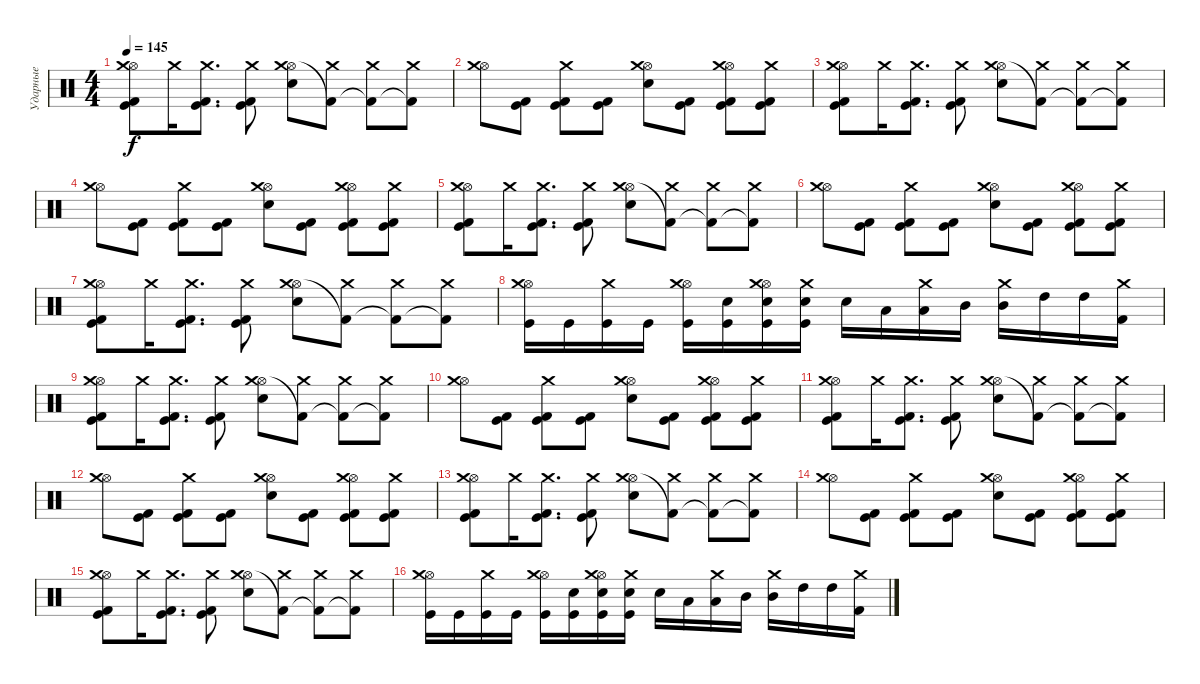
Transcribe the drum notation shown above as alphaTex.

\track ("Ударные" "Ударные") {instrument percussion}
\staff {score}
\articulation defaults
\ts (4 4)
\tempo 145
\clef neutral
\ks c
("Hi-Hat (open)" "Crash medium (hit)" "Kick (hit) 2" "Kick (hit)").8{dy f} "Crash medium (hit)".16 ("Crash medium (hit)" "Kick (hit) 2" "Kick (hit)").8{d} ("Crash medium (hit)" "Kick (hit) 2" "Kick (hit)").8 ("Hi-Hat (open)" "Crash medium (hit)" "Electric Snare (hit)").8 ("Crash medium (hit)" "Kick (hit) 2"{t}).8 ("Crash medium (hit)" "Kick (hit) 2"{t}).8 ("Crash medium (hit)" "Kick (hit) 2"{t}).8 |
("Hi-Hat (open)" "Crash medium (hit)").8 ("Kick (hit) 2" "Kick (hit)").8 ("Crash medium (hit)" "Kick (hit) 2" "Kick (hit)").8 ("Kick (hit) 2" "Kick (hit)").8 ("Hi-Hat (open)" "Crash medium (hit)" "Electric Snare (hit)").8 ("Kick (hit) 2" "Kick (hit)").8 ("Hi-Hat (open)" "Crash medium (hit)" "Kick (hit) 2" "Kick (hit)").8 ("Crash medium (hit)" "Kick (hit) 2" "Kick (hit)").8 |
("Hi-Hat (open)" "Crash medium (hit)" "Kick (hit) 2" "Kick (hit)").8 "Crash medium (hit)".16 ("Crash medium (hit)" "Kick (hit) 2" "Kick (hit)").8{d} ("Crash medium (hit)" "Kick (hit) 2" "Kick (hit)").8 ("Hi-Hat (open)" "Crash medium (hit)" "Electric Snare (hit)").8 ("Crash medium (hit)" "Kick (hit) 2"{t}).8 ("Crash medium (hit)" "Kick (hit) 2"{t}).8 ("Crash medium (hit)" "Kick (hit) 2"{t}).8 |
("Hi-Hat (open)" "Crash medium (hit)").8 ("Kick (hit) 2" "Kick (hit)").8 ("Crash medium (hit)" "Kick (hit) 2" "Kick (hit)").8 ("Kick (hit) 2" "Kick (hit)").8 ("Hi-Hat (open)" "Crash medium (hit)" "Electric Snare (hit)").8 ("Kick (hit) 2" "Kick (hit)").8 ("Hi-Hat (open)" "Crash medium (hit)" "Kick (hit) 2" "Kick (hit)").8 ("Crash medium (hit)" "Kick (hit) 2" "Kick (hit)").8 |
("Hi-Hat (open)" "Crash medium (hit)" "Kick (hit) 2" "Kick (hit)").8 "Crash medium (hit)".16 ("Crash medium (hit)" "Kick (hit) 2" "Kick (hit)").8{d} ("Crash medium (hit)" "Kick (hit) 2" "Kick (hit)").8 ("Hi-Hat (open)" "Crash medium (hit)" "Electric Snare (hit)").8 ("Crash medium (hit)" "Kick (hit) 2"{t}).8 ("Crash medium (hit)" "Kick (hit) 2"{t}).8 ("Crash medium (hit)" "Kick (hit) 2"{t}).8 |
("Hi-Hat (open)" "Crash medium (hit)").8 ("Kick (hit) 2" "Kick (hit)").8 ("Crash medium (hit)" "Kick (hit) 2" "Kick (hit)").8 ("Kick (hit) 2" "Kick (hit)").8 ("Hi-Hat (open)" "Crash medium (hit)" "Electric Snare (hit)").8 ("Kick (hit) 2" "Kick (hit)").8 ("Hi-Hat (open)" "Crash medium (hit)" "Kick (hit) 2" "Kick (hit)").8 ("Crash medium (hit)" "Kick (hit) 2" "Kick (hit)").8 |
("Hi-Hat (open)" "Crash medium (hit)" "Kick (hit) 2" "Kick (hit)").8 "Crash medium (hit)".16 ("Crash medium (hit)" "Kick (hit) 2" "Kick (hit)").8{d} ("Crash medium (hit)" "Kick (hit) 2" "Kick (hit)").8 ("Hi-Hat (open)" "Crash medium (hit)" "Electric Snare (hit)").8 ("Crash medium (hit)" "Kick (hit) 2"{t}).8 ("Crash medium (hit)" "Kick (hit) 2"{t}).8 ("Crash medium (hit)" "Kick (hit) 2"{t}).8 |
("Hi-Hat (open)" "Crash medium (hit)" "Kick (hit)").16 "Kick (hit)".16 ("Crash medium (hit)" "Kick (hit)").16 "Kick (hit)".16 ("Hi-Hat (open)" "Crash medium (hit)" "Kick (hit)").16 ("Electric Snare (hit)" "Kick (hit)").16 ("Hi-Hat (open)" "Crash medium (hit)" "Electric Snare (hit)" "Kick (hit)").16 ("Crash medium (hit)" "Electric Snare (hit)" "Kick (hit)").16 "Electric Snare (hit)".16 "Low Tom (hit)".16 ("Crash medium (hit)" "Low Tom (hit)").16 "Mid Tom (hit)".16 ("Crash medium (hit)" "Mid Tom (hit)").16 "High Tom (hit)".16 "High Tom (hit)".16 ("Crash medium (hit)" "Kick (hit) 2").16 |
("Hi-Hat (open)" "Crash medium (hit)" "Kick (hit) 2" "Kick (hit)").8 "Crash medium (hit)".16 ("Crash medium (hit)" "Kick (hit) 2" "Kick (hit)").8{d} ("Crash medium (hit)" "Kick (hit) 2" "Kick (hit)").8 ("Hi-Hat (open)" "Crash medium (hit)" "Electric Snare (hit)").8 ("Crash medium (hit)" "Kick (hit) 2"{t}).8 ("Crash medium (hit)" "Kick (hit) 2"{t}).8 ("Crash medium (hit)" "Kick (hit) 2"{t}).8 |
("Hi-Hat (open)" "Crash medium (hit)").8 ("Kick (hit) 2" "Kick (hit)").8 ("Crash medium (hit)" "Kick (hit) 2" "Kick (hit)").8 ("Kick (hit) 2" "Kick (hit)").8 ("Hi-Hat (open)" "Crash medium (hit)" "Electric Snare (hit)").8 ("Kick (hit) 2" "Kick (hit)").8 ("Hi-Hat (open)" "Crash medium (hit)" "Kick (hit) 2" "Kick (hit)").8 ("Crash medium (hit)" "Kick (hit) 2" "Kick (hit)").8 |
("Hi-Hat (open)" "Crash medium (hit)" "Kick (hit) 2" "Kick (hit)").8 "Crash medium (hit)".16 ("Crash medium (hit)" "Kick (hit) 2" "Kick (hit)").8{d} ("Crash medium (hit)" "Kick (hit) 2" "Kick (hit)").8 ("Hi-Hat (open)" "Crash medium (hit)" "Electric Snare (hit)").8 ("Crash medium (hit)" "Kick (hit) 2"{t}).8 ("Crash medium (hit)" "Kick (hit) 2"{t}).8 ("Crash medium (hit)" "Kick (hit) 2"{t}).8 |
("Hi-Hat (open)" "Crash medium (hit)").8 ("Kick (hit) 2" "Kick (hit)").8 ("Crash medium (hit)" "Kick (hit) 2" "Kick (hit)").8 ("Kick (hit) 2" "Kick (hit)").8 ("Hi-Hat (open)" "Crash medium (hit)" "Electric Snare (hit)").8 ("Kick (hit) 2" "Kick (hit)").8 ("Hi-Hat (open)" "Crash medium (hit)" "Kick (hit) 2" "Kick (hit)").8 ("Crash medium (hit)" "Kick (hit) 2" "Kick (hit)").8 |
("Hi-Hat (open)" "Crash medium (hit)" "Kick (hit) 2" "Kick (hit)").8 "Crash medium (hit)".16 ("Crash medium (hit)" "Kick (hit) 2" "Kick (hit)").8{d} ("Crash medium (hit)" "Kick (hit) 2" "Kick (hit)").8 ("Hi-Hat (open)" "Crash medium (hit)" "Electric Snare (hit)").8 ("Crash medium (hit)" "Kick (hit) 2"{t}).8 ("Crash medium (hit)" "Kick (hit) 2"{t}).8 ("Crash medium (hit)" "Kick (hit) 2"{t}).8 |
("Hi-Hat (open)" "Crash medium (hit)").8 ("Kick (hit) 2" "Kick (hit)").8 ("Crash medium (hit)" "Kick (hit) 2" "Kick (hit)").8 ("Kick (hit) 2" "Kick (hit)").8 ("Hi-Hat (open)" "Crash medium (hit)" "Electric Snare (hit)").8 ("Kick (hit) 2" "Kick (hit)").8 ("Hi-Hat (open)" "Crash medium (hit)" "Kick (hit) 2" "Kick (hit)").8 ("Crash medium (hit)" "Kick (hit) 2" "Kick (hit)").8 |
("Hi-Hat (open)" "Crash medium (hit)" "Kick (hit) 2" "Kick (hit)").8 "Crash medium (hit)".16 ("Crash medium (hit)" "Kick (hit) 2" "Kick (hit)").8{d} ("Crash medium (hit)" "Kick (hit) 2" "Kick (hit)").8 ("Hi-Hat (open)" "Crash medium (hit)" "Electric Snare (hit)").8 ("Crash medium (hit)" "Kick (hit) 2"{t}).8 ("Crash medium (hit)" "Kick (hit) 2"{t}).8 ("Crash medium (hit)" "Kick (hit) 2"{t}).8 |
("Hi-Hat (open)" "Crash medium (hit)" "Kick (hit)").16 "Kick (hit)".16 ("Crash medium (hit)" "Kick (hit)").16 "Kick (hit)".16 ("Hi-Hat (open)" "Crash medium (hit)" "Kick (hit)").16 ("Electric Snare (hit)" "Kick (hit)").16 ("Hi-Hat (open)" "Crash medium (hit)" "Electric Snare (hit)" "Kick (hit)").16 ("Crash medium (hit)" "Electric Snare (hit)" "Kick (hit)").16 "Electric Snare (hit)".16 "Low Tom (hit)".16 ("Crash medium (hit)" "Low Tom (hit)").16 "Mid Tom (hit)".16 ("Crash medium (hit)" "Mid Tom (hit)").16 "High Tom (hit)".16 "High Tom (hit)".16 ("Crash medium (hit)" "Kick (hit) 2").16
